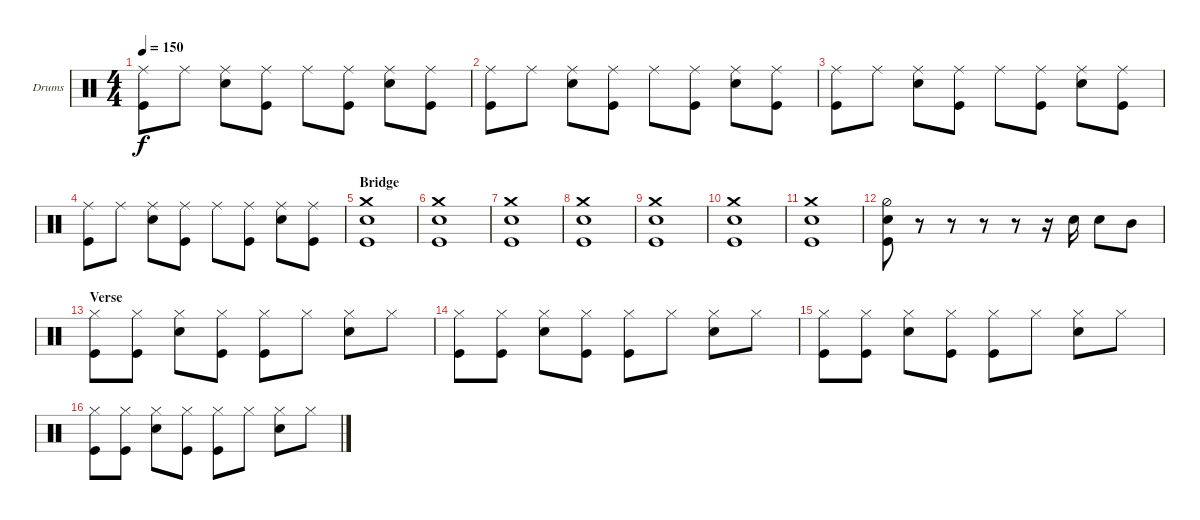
\bracketExtendMode groupsimilarinstruments
\firstSystemTrackNameOrientation horizontal
\otherSystemsTrackNameOrientation horizontal
\track ("Fabrizio" "Drums") {instrument percussion}
\staff {score}
\articulation defaults
\ts (4 4)
\tempo 150
\clef neutral
\ks c
("Ride (middle)" "Kick (hit)").8{dy f} "Ride (middle)".8 ("Ride (middle)" "Snare (hit) 2").8 ("Ride (middle)" "Kick (hit)").8 "Ride (middle)".8 ("Ride (middle)" "Kick (hit)").8 ("Ride (middle)" "Snare (hit) 2").8 ("Ride (middle)" "Kick (hit)").8 |
("Ride (middle)" "Kick (hit)").8 "Ride (middle)".8 ("Ride (middle)" "Snare (hit) 2").8 ("Ride (middle)" "Kick (hit)").8 "Ride (middle)".8 ("Ride (middle)" "Kick (hit)").8 ("Ride (middle)" "Snare (hit) 2").8 ("Ride (middle)" "Kick (hit)").8 |
("Ride (middle)" "Kick (hit)").8 "Ride (middle)".8 ("Ride (middle)" "Snare (hit) 2").8 ("Ride (middle)" "Kick (hit)").8 "Ride (middle)".8 ("Ride (middle)" "Kick (hit)").8 ("Ride (middle)" "Snare (hit) 2").8 ("Ride (middle)" "Kick (hit)").8 |
("Ride (middle)" "Kick (hit)").8 "Ride (middle)".8 ("Ride (middle)" "Snare (hit) 2").8 ("Ride (middle)" "Kick (hit)").8 "Ride (middle)".8 ("Ride (middle)" "Kick (hit)").8 ("Ride (middle)" "Snare (hit) 2").8 ("Ride (middle)" "Kick (hit)").8 |
\section ("" "Bridge")
("Crash medium (hit)" "Kick (hit)" "Snare (hit) 2").1 |
("Crash medium (hit)" "Kick (hit)" "Snare (hit) 2").1 |
("Crash medium (hit)" "Kick (hit)" "Snare (hit) 2").1 |
("Crash medium (hit)" "Kick (hit)" "Snare (hit) 2").1 |
("Crash medium (hit)" "Kick (hit)" "Snare (hit) 2").1 |
("Crash medium (hit)" "Kick (hit)" "Snare (hit) 2").1 |
("Crash medium (hit)" "Kick (hit)" "Snare (hit) 2").1 |
("Kick (hit)" "Snare (hit) 2" "Hi-Hat (half)").8 r.8 r.8 r.8 r.8 r.16 "Snare (hit) 2".16 "Snare (hit) 2".8 "Mid Tom (hit)".8 |
\section ("" "Verse")
("Hi-Hat (closed)" "Kick (hit)").8 ("Hi-Hat (closed)" "Kick (hit)").8 ("Hi-Hat (closed)" "Snare (hit) 2").8 ("Hi-Hat (closed)" "Kick (hit)").8 ("Hi-Hat (closed)" "Kick (hit)").8 "Hi-Hat (closed)".8 ("Hi-Hat (closed)" "Snare (hit) 2").8 "Hi-Hat (closed)".8 |
("Hi-Hat (closed)" "Kick (hit)").8 ("Hi-Hat (closed)" "Kick (hit)").8 ("Hi-Hat (closed)" "Snare (hit) 2").8 ("Hi-Hat (closed)" "Kick (hit)").8 ("Hi-Hat (closed)" "Kick (hit)").8 "Hi-Hat (closed)".8 ("Hi-Hat (closed)" "Snare (hit) 2").8 "Hi-Hat (closed)".8 |
("Hi-Hat (closed)" "Kick (hit)").8 ("Hi-Hat (closed)" "Kick (hit)").8 ("Hi-Hat (closed)" "Snare (hit) 2").8 ("Hi-Hat (closed)" "Kick (hit)").8 ("Hi-Hat (closed)" "Kick (hit)").8 "Hi-Hat (closed)".8 ("Hi-Hat (closed)" "Snare (hit) 2").8 "Hi-Hat (closed)".8 |
("Hi-Hat (closed)" "Kick (hit)").8 ("Hi-Hat (closed)" "Kick (hit)").8 ("Hi-Hat (closed)" "Snare (hit) 2").8 ("Hi-Hat (closed)" "Kick (hit)").8 ("Hi-Hat (closed)" "Kick (hit)").8 "Hi-Hat (closed)".8 ("Hi-Hat (closed)" "Snare (hit) 2").8 "Hi-Hat (closed)".8
